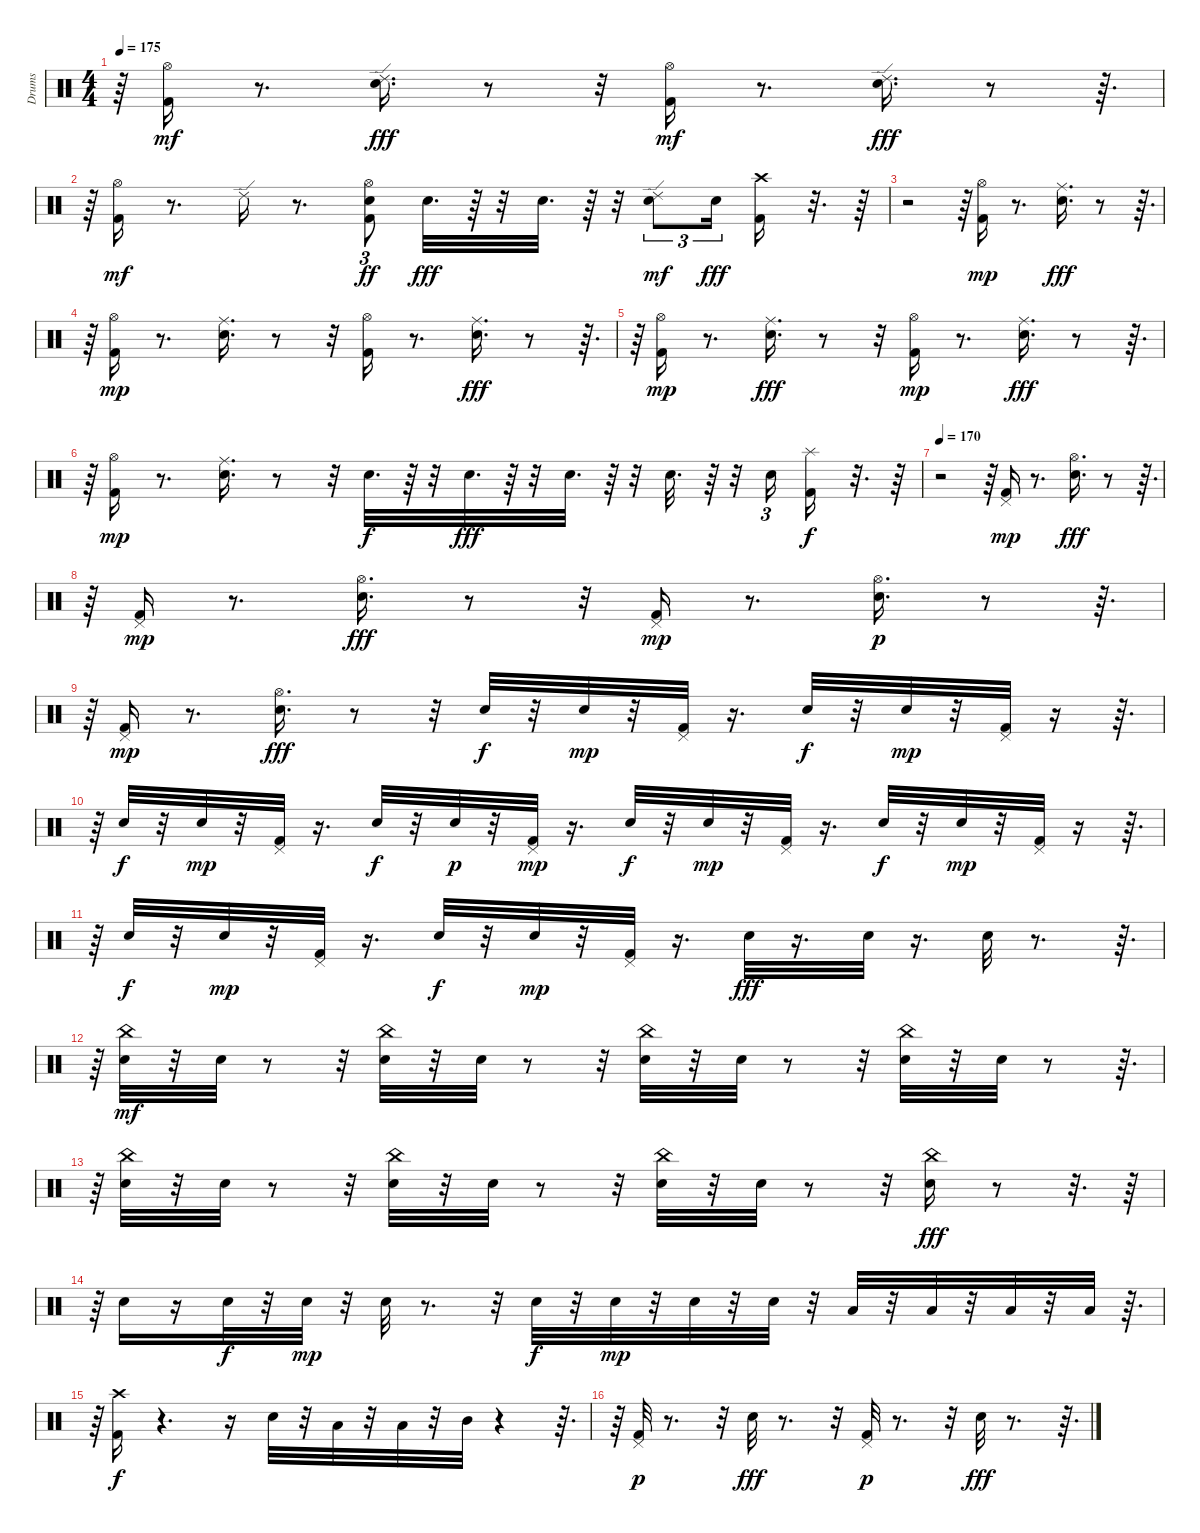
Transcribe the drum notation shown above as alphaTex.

\track ("Drums" "Drums") {instrument percussion}
\staff {score}
\articulation defaults
\ts (4 4)
\tempo 175
\clef neutral
\ks c
r.64{dy mf} ("Hi-Hat (open)" "Kick (hit) 2").16 r.8{d} ("Ride (edge) 2" "Snare (hit) 2").16{d dy fff} r.8 r.32 ("Kick (hit) 2" "Hi-Hat (open)").16{dy mf} r.8{d} ("Ride (edge) 2" "Snare (hit) 2").16{d dy fff} r.8 r.64{d} |
r.64 ("Hi-Hat (open)" "Kick (hit) 2").16{dy mf} r.8{d} "Ride (edge) 2".16 r.8{d} ("Hi-Hat (open)" "Kick (hit) 2" "Snare (hit) 2").8{tu (3 2) dy ff} "Snare (hit) 2".32{d dy fff} r.64 r.32 "Snare (hit) 2".32{d} r.64 r.32 ("Snare (hit) 2" "Ride (edge) 2").8{tu (3 2) dy mf} "Snare (hit) 2".16{tu (3 2) dy fff} ("Crash high (hit)" "Kick (hit) 2").16 r.32{d} r.64 |
r.2 r.64 ("Hi-Hat (open)" "Kick (hit) 2").16{dy mp} r.8{d} ("Ride (middle)" "Snare (hit) 2").16{d dy fff} r.8 r.64{d} |
r.64 ("Kick (hit) 2" "Hi-Hat (open)").16{dy mp} r.8{d} ("Snare (hit) 2" "Ride (middle)").16{d} r.8 r.32 ("Hi-Hat (open)" "Kick (hit) 2").16 r.8{d} ("Ride (middle)" "Snare (hit) 2").16{d dy fff} r.8 r.64{d} |
r.64 ("Kick (hit) 2" "Hi-Hat (open)").16{dy mp} r.8{d} ("Ride (middle)" "Snare (hit) 2").16{d dy fff} r.8 r.32 ("Hi-Hat (open)" "Kick (hit) 2").16{dy mp} r.8{d} ("Ride (middle)" "Snare (hit) 2").16{d dy fff} r.8 r.64{d} |
r.64 ("Hi-Hat (open)" "Kick (hit) 2").16{dy mp} r.8{d} ("Snare (hit) 2" "Ride (middle)").16{d} r.8 r.32 "Snare (hit) 2".32{d dy f} r.64 r.32 "Snare (hit) 2".32{d dy fff} r.64 r.32 "Snare (hit) 2".32{d} r.64 r.32 "Snare (hit) 2".32{d} r.64 r.32 "Snare (hit) 2".16{tu (3 2)} ("Splash (hit)" "Kick (hit) 2").16{dy f} r.32{d} r.64 |
\tempo 170
r.2 r.64 ("Kick (hit) 2" "Pedal Hi-Hat (hit)").16{dy mp} r.8{d} ("Hi-Hat (open)" "Snare (hit) 2").16{d dy fff} r.8 r.64{d} |
r.64 ("Pedal Hi-Hat (hit)" "Kick (hit) 2").16{dy mp} r.8{d} ("Hi-Hat (open)" "Snare (hit) 2").16{d dy fff} r.8 r.32 ("Pedal Hi-Hat (hit)" "Kick (hit) 2").16{dy mp} r.8{d} ("Snare (hit) 2" "Hi-Hat (open)").16{d dy p} r.8 r.64{d} |
r.64 ("Pedal Hi-Hat (hit)" "Kick (hit) 2").16{dy mp} r.8{d} ("Hi-Hat (open)" "Snare (hit) 2").16{d dy fff} r.8 r.32 "Snare (hit) 2".32{dy f} r.32 "Snare (hit) 2".32{dy mp} r.32 ("Pedal Hi-Hat (hit)" "Kick (hit) 2").32 r.16{d} "Snare (hit) 2".32{dy f} r.32 "Snare (hit) 2".32{dy mp} r.32 ("Kick (hit) 2" "Pedal Hi-Hat (hit)").32 r.16 r.64{d} |
r.64 "Snare (hit) 2".32{dy f} r.32 "Snare (hit) 2".32{dy mp} r.32 ("Kick (hit) 2" "Pedal Hi-Hat (hit)").32 r.16{d} "Snare (hit) 2".32{dy f} r.32 "Snare (hit) 2".32{dy p} r.32 ("Pedal Hi-Hat (hit)" "Kick (hit) 2").32{dy mp} r.16{d} "Snare (hit) 2".32{dy f} r.32 "Snare (hit) 2".32{dy mp} r.32 ("Kick (hit) 2" "Pedal Hi-Hat (hit)").32 r.16{d} "Snare (hit) 2".32{dy f} r.32 "Snare (hit) 2".32{dy mp} r.32 ("Kick (hit) 2" "Pedal Hi-Hat (hit)").32 r.16 r.64{d} |
r.64 "Snare (hit) 2".32{dy f} r.32 "Snare (hit) 2".32{dy mp} r.32 ("Kick (hit) 2" "Pedal Hi-Hat (hit)").32 r.16{d} "Snare (hit) 2".32{dy f} r.32 "Snare (hit) 2".32{dy mp} r.32 ("Kick (hit) 2" "Pedal Hi-Hat (hit)").32 r.16{d} "Snare (hit) 2".32{dy fff} r.16{d} "Snare (hit) 2".32 r.16{d} "Snare (hit) 2".32 r.8{d} r.64{d} |
r.64 ("China (hit)" "Snare (hit) 2").32{dy mf} r.32 "Snare (hit) 2".32 r.8 r.32 ("China (hit)" "Snare (hit) 2").32 r.32 "Snare (hit) 2".32 r.8 r.32 ("Snare (hit) 2" "China (hit)").32 r.32 "Snare (hit) 2".32 r.8 r.32 ("China (hit)" "Snare (hit) 2").32 r.32 "Snare (hit) 2".32 r.8 r.64{d} |
r.64 ("China (hit)" "Snare (hit) 2").32 r.32 "Snare (hit) 2".32 r.8 r.32 ("Snare (hit) 2" "China (hit)").32 r.32 "Snare (hit) 2".32 r.8 r.32 ("China (hit)" "Snare (hit) 2").32 r.32 "Snare (hit) 2".32 r.8 r.32 ("China (hit)" "Snare (hit) 2").16{dy fff} r.8 r.32{d} r.64 |
r.64 "Snare (hit) 2".16 r.16 "Snare (hit) 2".32{dy f} r.32 "Snare (hit) 2".32{dy mp} r.32 "Snare (hit) 2".32 r.8{d} r.32 "Snare (hit) 2".32{dy f} r.32 "Snare (hit) 2".32{dy mp} r.32 "Snare (hit) 2".32 r.32 "Snare (hit) 2".32 r.32 "Low Floor Tom (hit)".32 r.32 "Low Floor Tom (hit)".32 r.32 "Low Floor Tom (hit)".32 r.32 "Low Floor Tom (hit)".32 r.64{d} |
r.64 ("Crash high (hit)" "Kick (hit) 2").16{dy f} r.4{d} r.16 "Snare (hit) 2".32 r.32 "Low Floor Tom (hit)".32 r.32 "Low Tom (hit)".32 r.32 "Mid Tom (hit)".32 r.4 r.64{d} |
r.64 ("Pedal Hi-Hat (hit)" "Kick (hit) 2").32{dy p} r.8{d} r.32 "Snare (hit) 2".32{dy fff} r.8{d} r.32 ("Pedal Hi-Hat (hit)" "Kick (hit) 2").32{dy p} r.8{d} r.32 "Snare (hit) 2".32{dy fff} r.8{d} r.64{d}
